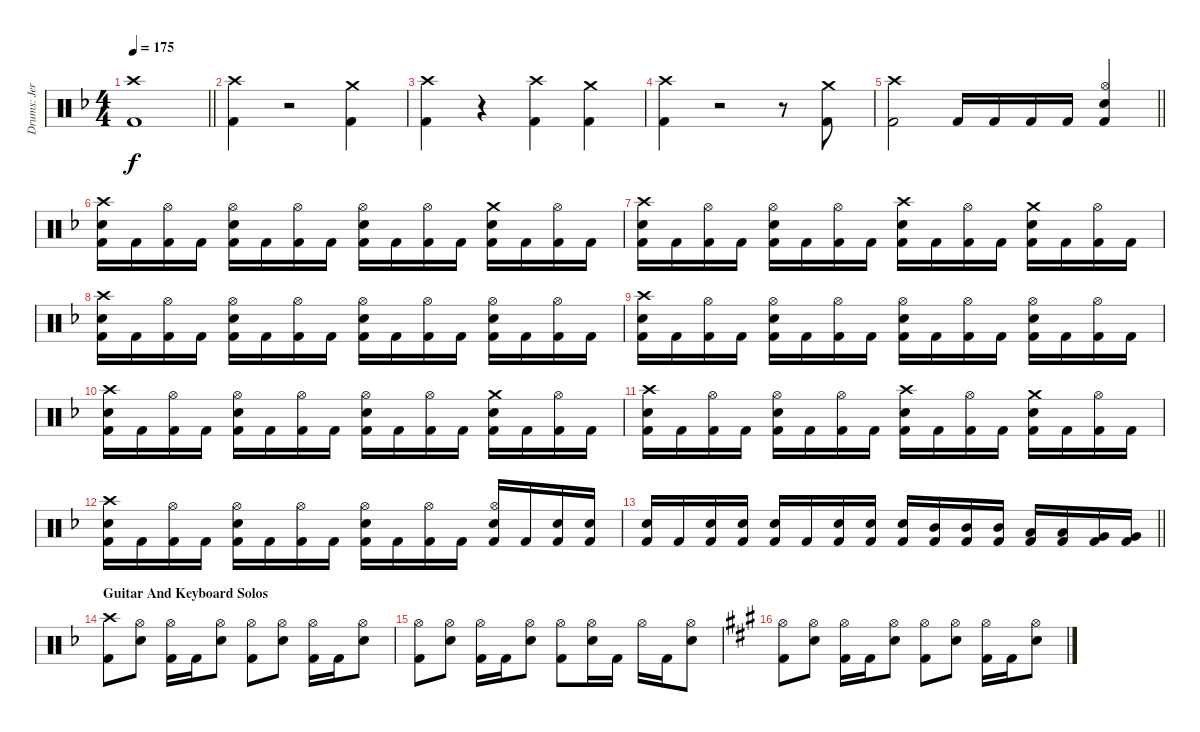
\track ("Drums: Jere Luokkamäki" "Drums: Jer") {instrument percussion}
\staff {score}
\articulation defaults
\ts (4 4)
\tempo 175
\clef neutral
\barLineRight lightlight
\ks dminor
("Crash high (hit)" "Kick (hit) 2").1{dy f} |
("Crash high (hit)" "Kick (hit) 2").4 r.2 ("Crash medium (hit)" "Kick (hit) 2").4 |
("Crash high (hit)" "Kick (hit) 2").4 r.4 ("Crash high (hit)" "Kick (hit) 2").4 ("Crash medium (hit)" "Kick (hit) 2").4 |
("Crash high (hit)" "Kick (hit) 2").4 r.2 r.8 ("Crash medium (hit)" "Kick (hit) 2").8 |
\barLineRight lightlight
("Crash high (hit)" "Kick (hit) 2").2 "Kick (hit) 2".16 "Kick (hit) 2".16 "Kick (hit) 2".16 "Kick (hit) 2".16 ("Hi-Hat (open)" "Electric Snare (hit)" "Kick (hit) 2").4 |
("Crash high (hit)" "Electric Snare (hit)" "Kick (hit) 2").16 "Kick (hit) 2".16 ("Hi-Hat (open)" "Kick (hit) 2").16 "Kick (hit) 2".16 ("Hi-Hat (open)" "Electric Snare (hit)" "Kick (hit) 2").16 "Kick (hit) 2".16 ("Hi-Hat (open)" "Kick (hit) 2").16 "Kick (hit) 2".16 ("Hi-Hat (open)" "Electric Snare (hit)" "Kick (hit) 2").16 "Kick (hit) 2".16 ("Hi-Hat (open)" "Kick (hit) 2").16 "Kick (hit) 2".16 ("Crash medium (hit)" "Electric Snare (hit)" "Kick (hit) 2").16 "Kick (hit) 2".16 ("Hi-Hat (open)" "Kick (hit) 2").16 "Kick (hit) 2".16 |
("Crash high (hit)" "Electric Snare (hit)" "Kick (hit) 2").16 "Kick (hit) 2".16 ("Hi-Hat (open)" "Kick (hit) 2").16 "Kick (hit) 2".16 ("Hi-Hat (open)" "Electric Snare (hit)" "Kick (hit) 2").16 "Kick (hit) 2".16 ("Hi-Hat (open)" "Kick (hit) 2").16 "Kick (hit) 2".16 ("Crash high (hit)" "Electric Snare (hit)" "Kick (hit) 2").16 "Kick (hit) 2".16 ("Hi-Hat (open)" "Kick (hit) 2").16 "Kick (hit) 2".16 ("Crash medium (hit)" "Electric Snare (hit)" "Kick (hit) 2").16 "Kick (hit) 2".16 ("Hi-Hat (open)" "Kick (hit) 2").16 "Kick (hit) 2".16 |
("Crash high (hit)" "Electric Snare (hit)" "Kick (hit) 2").16 "Kick (hit) 2".16 ("Hi-Hat (open)" "Kick (hit) 2").16 "Kick (hit) 2".16 ("Hi-Hat (open)" "Electric Snare (hit)" "Kick (hit) 2").16 "Kick (hit) 2".16 ("Hi-Hat (open)" "Kick (hit) 2").16 "Kick (hit) 2".16 ("Hi-Hat (open)" "Electric Snare (hit)" "Kick (hit) 2").16 "Kick (hit) 2".16 ("Hi-Hat (open)" "Kick (hit) 2").16 "Kick (hit) 2".16 ("Hi-Hat (open)" "Electric Snare (hit)" "Kick (hit) 2").16 "Kick (hit) 2".16 ("Hi-Hat (open)" "Kick (hit) 2").16 "Kick (hit) 2".16 |
("Crash high (hit)" "Electric Snare (hit)" "Kick (hit) 2").16 "Kick (hit) 2".16 ("Hi-Hat (open)" "Kick (hit) 2").16 "Kick (hit) 2".16 ("Hi-Hat (open)" "Electric Snare (hit)" "Kick (hit) 2").16 "Kick (hit) 2".16 ("Hi-Hat (open)" "Kick (hit) 2").16 "Kick (hit) 2".16 ("Hi-Hat (open)" "Electric Snare (hit)" "Kick (hit) 2").16 "Kick (hit) 2".16 ("Hi-Hat (open)" "Kick (hit) 2").16 "Kick (hit) 2".16 ("Hi-Hat (open)" "Electric Snare (hit)" "Kick (hit) 2").16 "Kick (hit) 2".16 ("Hi-Hat (open)" "Kick (hit) 2").16 "Kick (hit) 2".16 |
("Crash high (hit)" "Electric Snare (hit)" "Kick (hit) 2").16 "Kick (hit) 2".16 ("Hi-Hat (open)" "Kick (hit) 2").16 "Kick (hit) 2".16 ("Hi-Hat (open)" "Electric Snare (hit)" "Kick (hit) 2").16 "Kick (hit) 2".16 ("Hi-Hat (open)" "Kick (hit) 2").16 "Kick (hit) 2".16 ("Hi-Hat (open)" "Electric Snare (hit)" "Kick (hit) 2").16 "Kick (hit) 2".16 ("Hi-Hat (open)" "Kick (hit) 2").16 "Kick (hit) 2".16 ("Crash medium (hit)" "Electric Snare (hit)" "Kick (hit) 2").16 "Kick (hit) 2".16 ("Hi-Hat (open)" "Kick (hit) 2").16 "Kick (hit) 2".16 |
("Crash high (hit)" "Electric Snare (hit)" "Kick (hit) 2").16 "Kick (hit) 2".16 ("Hi-Hat (open)" "Kick (hit) 2").16 "Kick (hit) 2".16 ("Hi-Hat (open)" "Electric Snare (hit)" "Kick (hit) 2").16 "Kick (hit) 2".16 ("Hi-Hat (open)" "Kick (hit) 2").16 "Kick (hit) 2".16 ("Crash high (hit)" "Electric Snare (hit)" "Kick (hit) 2").16 "Kick (hit) 2".16 ("Hi-Hat (open)" "Kick (hit) 2").16 "Kick (hit) 2".16 ("Crash medium (hit)" "Electric Snare (hit)" "Kick (hit) 2").16 "Kick (hit) 2".16 ("Hi-Hat (open)" "Kick (hit) 2").16 "Kick (hit) 2".16 |
("Crash high (hit)" "Electric Snare (hit)" "Kick (hit) 2").16 "Kick (hit) 2".16 ("Hi-Hat (open)" "Kick (hit) 2").16 "Kick (hit) 2".16 ("Hi-Hat (open)" "Electric Snare (hit)" "Kick (hit) 2").16 "Kick (hit) 2".16 ("Hi-Hat (open)" "Kick (hit) 2").16 "Kick (hit) 2".16 ("Hi-Hat (open)" "Electric Snare (hit)" "Kick (hit) 2").16 "Kick (hit) 2".16 ("Hi-Hat (open)" "Kick (hit) 2").16 "Kick (hit) 2".16 ("Hi-Hat (open)" "Electric Snare (hit)" "Kick (hit) 2").16 "Kick (hit) 2".16 ("Electric Snare (hit)" "Kick (hit) 2").16 ("Electric Snare (hit)" "Kick (hit) 2").16 |
\barLineRight lightlight
("Electric Snare (hit)" "Kick (hit) 2").16 "Kick (hit) 2".16 ("Electric Snare (hit)" "Kick (hit) 2").16 ("Electric Snare (hit)" "Kick (hit) 2").16 ("Electric Snare (hit)" "Kick (hit) 2").16 "Kick (hit) 2".16 ("Electric Snare (hit)" "Kick (hit) 2").16 ("Electric Snare (hit)" "Kick (hit) 2").16 ("Electric Snare (hit)" "Kick (hit) 2").16 ("Mid Tom (hit)" "Kick (hit) 2").16 ("Mid Tom (hit)" "Kick (hit) 2").16 ("Mid Tom (hit)" "Kick (hit) 2").16 ("Low Tom (hit)" "Kick (hit) 2").16 ("Low Tom (hit)" "Kick (hit) 2").16 ("Very Low Tom (hit)" "Kick (hit) 2").16 ("Very Low Tom (hit)" "Kick (hit) 2").16 |
\section ("" "Guitar And Keyboard Solos")
("Crash high (hit)" "Kick (hit) 2").8 ("Hi-Hat (open)" "Electric Snare (hit)").8 ("Hi-Hat (open)" "Kick (hit) 2").16 "Kick (hit) 2".16 ("Hi-Hat (open)" "Electric Snare (hit)").8 ("Hi-Hat (open)" "Kick (hit) 2").8 ("Hi-Hat (open)" "Electric Snare (hit)").8 ("Hi-Hat (open)" "Kick (hit) 2").16 "Kick (hit) 2".16 ("Hi-Hat (open)" "Electric Snare (hit)").8 |
("Hi-Hat (open)" "Kick (hit) 2").8 ("Hi-Hat (open)" "Electric Snare (hit)").8 ("Hi-Hat (open)" "Kick (hit) 2").16 "Kick (hit) 2".16 ("Hi-Hat (open)" "Electric Snare (hit)").8 ("Hi-Hat (open)" "Kick (hit) 2").8 ("Hi-Hat (open)" "Electric Snare (hit)").16 "Kick (hit) 2".16 "Hi-Hat (open)".16 "Kick (hit) 2".16 ("Hi-Hat (open)" "Electric Snare (hit)").8 |
\ks a
("Hi-Hat (open)" "Kick (hit) 2").8 ("Hi-Hat (open)" "Electric Snare (hit)").8 ("Hi-Hat (open)" "Kick (hit) 2").16 "Kick (hit) 2".16 ("Hi-Hat (open)" "Electric Snare (hit)").8 ("Hi-Hat (open)" "Kick (hit) 2").8 ("Hi-Hat (open)" "Electric Snare (hit)").8 ("Hi-Hat (open)" "Kick (hit) 2").16 "Kick (hit) 2".16 ("Hi-Hat (open)" "Electric Snare (hit)").8
